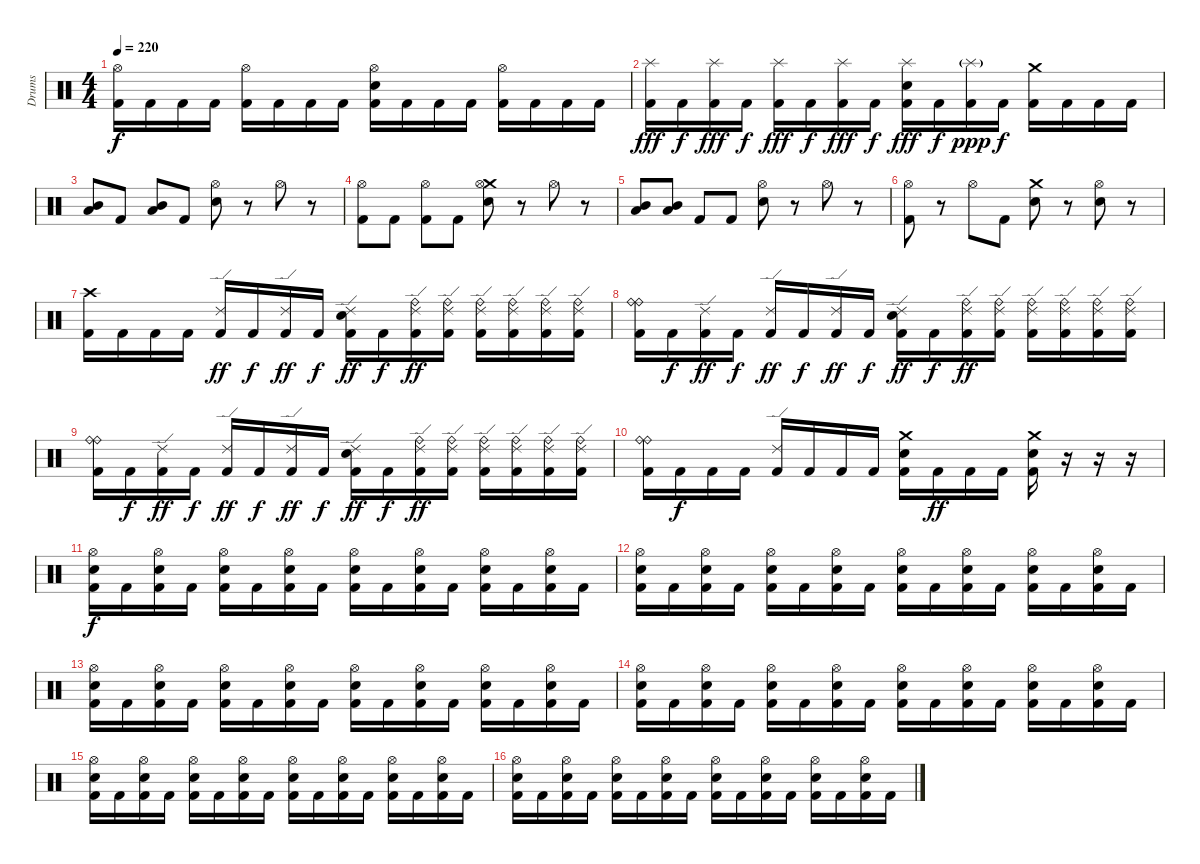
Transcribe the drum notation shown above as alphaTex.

\track ("Drums" "Drums") {instrument percussion}
\staff {score}
\articulation defaults
\ts (4 4)
\tempo 220
\clef neutral
\ks c
("Hi-Hat (open)" "Kick (hit) 2").16{dy f} "Kick (hit) 2".16 "Kick (hit) 2".16 "Kick (hit) 2".16 ("Hi-Hat (open)" "Kick (hit) 2").16 "Kick (hit) 2".16 "Kick (hit) 2".16 "Kick (hit) 2".16 ("Hi-Hat (open)" "Electric Snare (hit)" "Kick (hit) 2").16 "Kick (hit) 2".16 "Kick (hit) 2".16 "Kick (hit) 2".16 ("Hi-Hat (open)" "Kick (hit) 2").16 "Kick (hit) 2".16 "Kick (hit) 2".16 "Kick (hit) 2".16 |
("Splash (hit)" "Kick (hit) 2").16{dy fff} "Kick (hit) 2".16{dy f} ("Splash (hit)" "Kick (hit) 2").16{dy fff} "Kick (hit) 2".16{dy f} ("Splash (hit)" "Kick (hit) 2").16{dy fff} "Kick (hit) 2".16{dy f} ("Splash (hit)" "Kick (hit) 2").16{dy fff} "Kick (hit) 2".16{dy f} ("Splash (hit)" "Electric Snare (hit)" "Kick (hit) 2").16{dy fff} "Kick (hit) 2".16{dy f} ("Splash (hit)"{g} "Kick (hit) 2").16{dy ppp} "Kick (hit) 2".16{dy f} ("Crash medium (hit)" "Kick (hit) 2").16 "Kick (hit) 2".16 "Kick (hit) 2".16 "Kick (hit) 2".16 |
("Mid Tom (hit)" "Low Tom (hit)").8 "Kick (hit) 2".8 ("Mid Tom (hit)" "Low Tom (hit)").8 "Kick (hit) 2".8 ("Hi-Hat (open)" "Electric Snare (hit)").8 r.8 "Hi-Hat (open)".8 r.8 |
("Hi-Hat (open)" "Kick (hit) 2").8 "Kick (hit) 2".8 ("Hi-Hat (open)" "Kick (hit) 2").8 "Kick (hit) 2".8 ("Crash medium (hit)" "Hi-Hat (open)" "Electric Snare (hit)").8 r.8 "Hi-Hat (open)".8 r.8 |
("Mid Tom (hit)" "Low Tom (hit)").8 ("Mid Tom (hit)" "Low Tom (hit)").8 "Kick (hit) 2".8 "Kick (hit) 2".8 ("Hi-Hat (open)" "Electric Snare (hit)").8 r.8 "Hi-Hat (open)".8 r.8 |
("Hi-Hat (open)" "Kick (hit) 2").8 r.8 "Hi-Hat (open)".8 "Kick (hit) 2".8 ("Crash medium (hit)" "Electric Snare (hit)").8 r.8 ("Hi-Hat (open)" "Electric Snare (hit)").8 r.8 |
("Crash high (hit)" "Kick (hit) 2").16 "Kick (hit) 2".16 "Kick (hit) 2".16 "Kick (hit) 2".16 ("Ride (edge) 2" "Kick (hit) 2").16{dy ff} "Kick (hit) 2".16{dy f} ("Ride (edge) 2" "Kick (hit) 2").16{dy ff} "Kick (hit) 2".16{dy f} ("Ride (edge) 2" "Electric Snare (hit)" "Kick (hit) 2").16{dy ff} "Kick (hit) 2".16{dy f} ("Ride (bell)" "Ride (edge) 2" "Kick (hit) 2").16{dy ff} ("Ride (bell)" "Ride (edge) 2" "Kick (hit) 2").16 ("Ride (bell)" "Ride (edge) 2" "Kick (hit) 2").16 ("Ride (bell)" "Ride (edge) 2" "Kick (hit) 2").16 ("Ride (bell)" "Ride (edge) 2" "Kick (hit) 2").16 ("Ride (bell)" "Ride (edge) 2" "Kick (hit) 2").16 |
("Ride (bell)" "Ride (bell)" "Kick (hit) 2").16 "Kick (hit) 2".16{dy f} ("Ride (edge) 2" "Kick (hit) 2").16{dy ff} "Kick (hit) 2".16{dy f} ("Ride (edge) 2" "Kick (hit) 2").16{dy ff} "Kick (hit) 2".16{dy f} ("Ride (edge) 2" "Kick (hit) 2").16{dy ff} "Kick (hit) 2".16{dy f} ("Ride (edge) 2" "Electric Snare (hit)" "Kick (hit) 2").16{dy ff} "Kick (hit) 2".16{dy f} ("Ride (bell)" "Ride (edge) 2" "Kick (hit) 2").16{dy ff} ("Ride (bell)" "Ride (edge) 2" "Kick (hit) 2").16 ("Ride (bell)" "Ride (edge) 2" "Kick (hit) 2").16 ("Ride (bell)" "Ride (edge) 2" "Kick (hit) 2").16 ("Ride (bell)" "Ride (edge) 2" "Kick (hit) 2").16 ("Ride (bell)" "Ride (edge) 2" "Kick (hit) 2").16 |
("Ride (bell)" "Ride (bell)" "Kick (hit) 2").16 "Kick (hit) 2".16{dy f} ("Ride (edge) 2" "Kick (hit) 2").16{dy ff} "Kick (hit) 2".16{dy f} ("Ride (edge) 2" "Kick (hit) 2").16{dy ff} "Kick (hit) 2".16{dy f} ("Ride (edge) 2" "Kick (hit) 2").16{dy ff} "Kick (hit) 2".16{dy f} ("Ride (edge) 2" "Electric Snare (hit)" "Kick (hit) 2").16{dy ff} "Kick (hit) 2".16{dy f} ("Ride (bell)" "Ride (edge) 2" "Kick (hit) 2").16{dy ff} ("Ride (bell)" "Ride (edge) 2" "Kick (hit) 2").16 ("Ride (bell)" "Ride (edge) 2" "Kick (hit) 2").16 ("Ride (bell)" "Ride (edge) 2" "Kick (hit) 2").16 ("Ride (bell)" "Ride (edge) 2" "Kick (hit) 2").16 ("Ride (bell)" "Ride (edge) 2" "Kick (hit) 2").16 |
("Ride (bell)" "Ride (bell)" "Kick (hit) 2").16 "Kick (hit) 2".16{dy f} "Kick (hit) 2".16 "Kick (hit) 2".16 ("Ride (edge) 2" "Kick (hit) 2").16 "Kick (hit) 2".16 "Kick (hit) 2".16 "Kick (hit) 2".16 ("Crash medium (hit)" "Electric Snare (hit)" "Kick (hit) 2").16 "Kick (hit) 2".16{dy ff} "Kick (hit) 2".16 "Kick (hit) 2".16 ("Crash medium (hit)" "Electric Snare (hit)" "Kick (hit) 2").16 r.16 r.16 r.16 |
("Hi-Hat (open)" "Electric Snare (hit)" "Kick (hit) 2").16{dy f} "Kick (hit) 2".16 ("Hi-Hat (open)" "Electric Snare (hit)" "Kick (hit) 2").16 "Kick (hit) 2".16 ("Hi-Hat (open)" "Electric Snare (hit)" "Kick (hit) 2").16 "Kick (hit) 2".16 ("Hi-Hat (open)" "Electric Snare (hit)" "Kick (hit) 2").16 "Kick (hit) 2".16 ("Hi-Hat (open)" "Electric Snare (hit)" "Kick (hit) 2").16 "Kick (hit) 2".16 ("Hi-Hat (open)" "Electric Snare (hit)" "Kick (hit) 2").16 "Kick (hit) 2".16 ("Hi-Hat (open)" "Electric Snare (hit)" "Kick (hit) 2").16 "Kick (hit) 2".16 ("Hi-Hat (open)" "Electric Snare (hit)" "Kick (hit) 2").16 "Kick (hit) 2".16 |
("Hi-Hat (open)" "Electric Snare (hit)" "Kick (hit) 2").16 "Kick (hit) 2".16 ("Hi-Hat (open)" "Electric Snare (hit)" "Kick (hit) 2").16 "Kick (hit) 2".16 ("Hi-Hat (open)" "Electric Snare (hit)" "Kick (hit) 2").16 "Kick (hit) 2".16 ("Hi-Hat (open)" "Electric Snare (hit)" "Kick (hit) 2").16 "Kick (hit) 2".16 ("Hi-Hat (open)" "Electric Snare (hit)" "Kick (hit) 2").16 "Kick (hit) 2".16 ("Hi-Hat (open)" "Electric Snare (hit)" "Kick (hit) 2").16 "Kick (hit) 2".16 ("Hi-Hat (open)" "Electric Snare (hit)" "Kick (hit) 2").16 "Kick (hit) 2".16 ("Hi-Hat (open)" "Electric Snare (hit)" "Kick (hit) 2").16 "Kick (hit) 2".16 |
("Hi-Hat (open)" "Electric Snare (hit)" "Kick (hit) 2").16 "Kick (hit) 2".16 ("Hi-Hat (open)" "Electric Snare (hit)" "Kick (hit) 2").16 "Kick (hit) 2".16 ("Hi-Hat (open)" "Electric Snare (hit)" "Kick (hit) 2").16 "Kick (hit) 2".16 ("Hi-Hat (open)" "Electric Snare (hit)" "Kick (hit) 2").16 "Kick (hit) 2".16 ("Hi-Hat (open)" "Electric Snare (hit)" "Kick (hit) 2").16 "Kick (hit) 2".16 ("Hi-Hat (open)" "Electric Snare (hit)" "Kick (hit) 2").16 "Kick (hit) 2".16 ("Hi-Hat (open)" "Electric Snare (hit)" "Kick (hit) 2").16 "Kick (hit) 2".16 ("Hi-Hat (open)" "Electric Snare (hit)" "Kick (hit) 2").16 "Kick (hit) 2".16 |
("Hi-Hat (open)" "Electric Snare (hit)" "Kick (hit) 2").16 "Kick (hit) 2".16 ("Hi-Hat (open)" "Electric Snare (hit)" "Kick (hit) 2").16 "Kick (hit) 2".16 ("Hi-Hat (open)" "Electric Snare (hit)" "Kick (hit) 2").16 "Kick (hit) 2".16 ("Hi-Hat (open)" "Electric Snare (hit)" "Kick (hit) 2").16 "Kick (hit) 2".16 ("Hi-Hat (open)" "Electric Snare (hit)" "Kick (hit) 2").16 "Kick (hit) 2".16 ("Hi-Hat (open)" "Electric Snare (hit)" "Kick (hit) 2").16 "Kick (hit) 2".16 ("Hi-Hat (open)" "Electric Snare (hit)" "Kick (hit) 2").16 "Kick (hit) 2".16 ("Hi-Hat (open)" "Electric Snare (hit)" "Kick (hit) 2").16 "Kick (hit) 2".16 |
("Hi-Hat (open)" "Electric Snare (hit)" "Kick (hit) 2").16 "Kick (hit) 2".16 ("Hi-Hat (open)" "Electric Snare (hit)" "Kick (hit) 2").16 "Kick (hit) 2".16 ("Hi-Hat (open)" "Electric Snare (hit)" "Kick (hit) 2").16 "Kick (hit) 2".16 ("Hi-Hat (open)" "Electric Snare (hit)" "Kick (hit) 2").16 "Kick (hit) 2".16 ("Hi-Hat (open)" "Electric Snare (hit)" "Kick (hit) 2").16 "Kick (hit) 2".16 ("Hi-Hat (open)" "Electric Snare (hit)" "Kick (hit) 2").16 "Kick (hit) 2".16 ("Hi-Hat (open)" "Electric Snare (hit)" "Kick (hit) 2").16 "Kick (hit) 2".16 ("Hi-Hat (open)" "Electric Snare (hit)" "Kick (hit) 2").16 "Kick (hit) 2".16 |
("Hi-Hat (open)" "Electric Snare (hit)" "Kick (hit) 2").16 "Kick (hit) 2".16 ("Hi-Hat (open)" "Electric Snare (hit)" "Kick (hit) 2").16 "Kick (hit) 2".16 ("Hi-Hat (open)" "Electric Snare (hit)" "Kick (hit) 2").16 "Kick (hit) 2".16 ("Hi-Hat (open)" "Electric Snare (hit)" "Kick (hit) 2").16 "Kick (hit) 2".16 ("Hi-Hat (open)" "Electric Snare (hit)" "Kick (hit) 2").16 "Kick (hit) 2".16 ("Hi-Hat (open)" "Electric Snare (hit)" "Kick (hit) 2").16 "Kick (hit) 2".16 ("Hi-Hat (open)" "Electric Snare (hit)" "Kick (hit) 2").16 "Kick (hit) 2".16 ("Hi-Hat (open)" "Electric Snare (hit)" "Kick (hit) 2").16 "Kick (hit) 2".16
